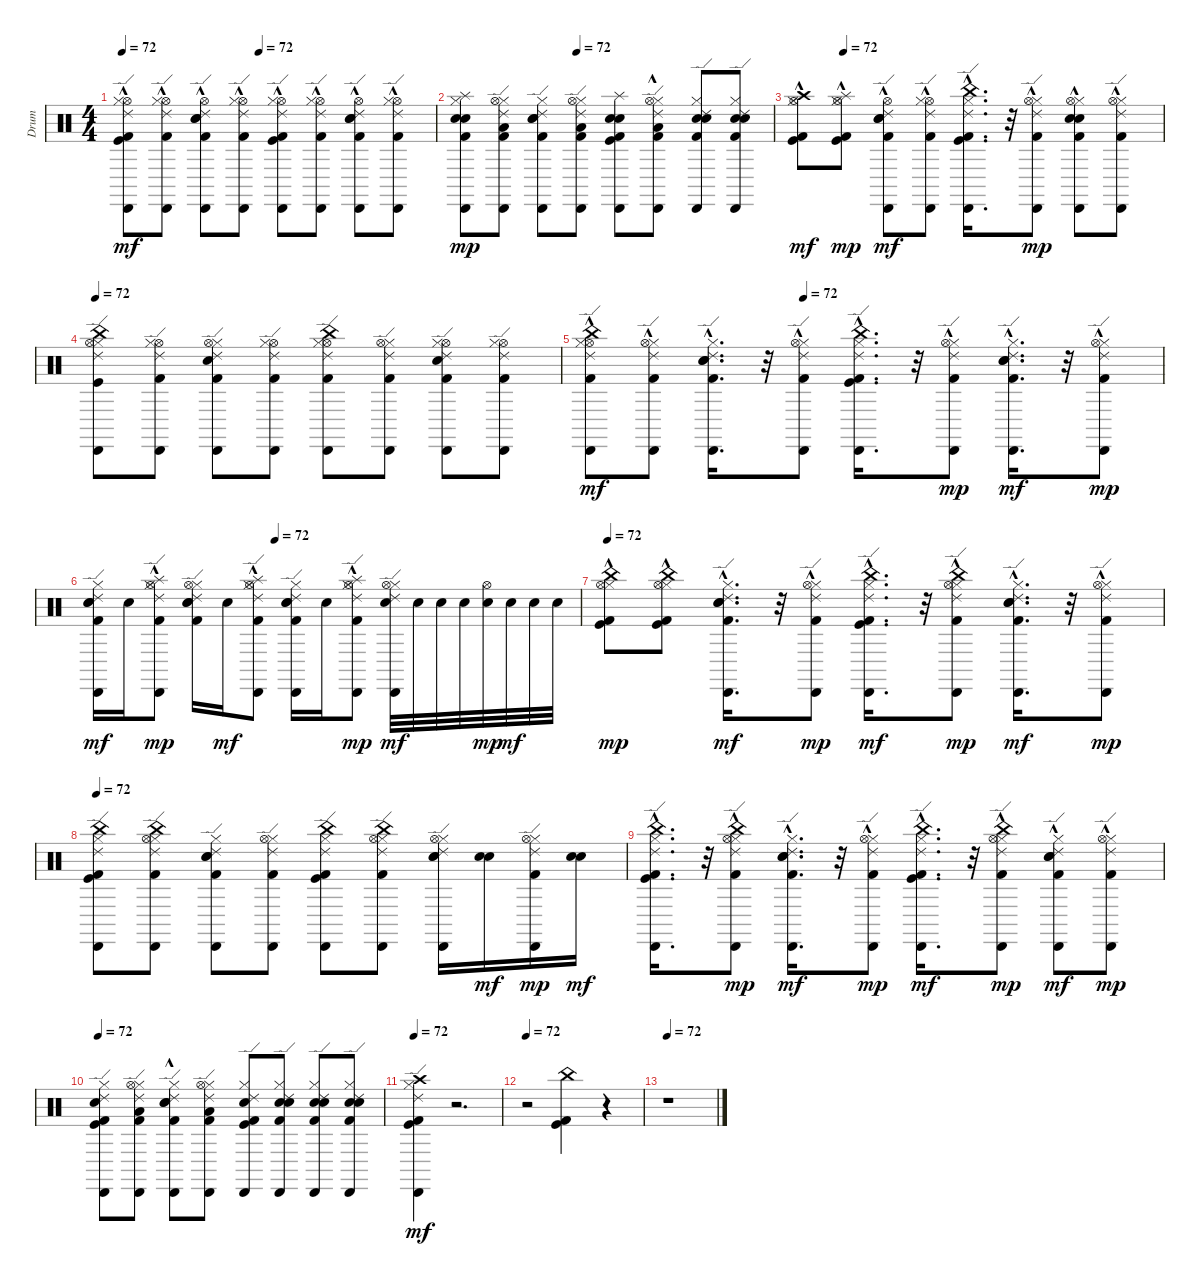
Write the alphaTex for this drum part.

\track ("Drum" "Drum") {instrument percussion}
\staff {score}
\articulation defaults
\ts (4 4)
\tempo 72
\tempo (72 0.4375)
\clef neutral
\ks c
("Hi-Hat (open)" "Kick (hit)"{hac} "Kick (hit) 2"{hac} "Cabasa (hit)"{hac} "Ride (edge) 2"{hac} "Hi-Hat (closed)"{hac}).8{dy mf} ("Hi-Hat (open)" "Kick (hit) 2"{hac} "Cabasa (hit)"{hac} "Ride (edge) 2"{hac} "Hi-Hat (closed)"{hac}).8 ("Hi-Hat (open)" "Electric Snare (hit)"{hac} "Snare (hit) 2"{hac} "Kick (hit) 2"{hac} "Cabasa (hit)"{hac} "Ride (edge) 2"{hac}).8 ("Hi-Hat (open)" "Kick (hit) 2"{hac} "Cabasa (hit)"{hac} "Ride (edge) 2"{hac} "Hi-Hat (closed)"{hac}).8 ("Hi-Hat (open)" "Kick (hit)" "Kick (hit) 2"{hac} "Cabasa (hit)"{hac} "Ride (edge) 2"{hac} "Hi-Hat (closed)"{hac}).8 ("Hi-Hat (open)" "Kick (hit) 2"{hac} "Cabasa (hit)"{hac} "Ride (edge) 2"{hac} "Hi-Hat (closed)"{hac}).8 ("Hi-Hat (open)" "Electric Snare (hit)"{hac} "Snare (hit) 2"{hac} "Kick (hit) 2"{hac} "Cabasa (hit)"{hac} "Ride (edge) 2"{hac}).8 ("Hi-Hat (open)" "Kick (hit) 2"{hac} "Cabasa (hit)"{hac} "Ride (edge) 2" "Hi-Hat (closed)"{hac}).8 |
\tempo (72 0.375)
("Electric Snare (hit)" "Snare (hit) 2" "Splash (hit)" "Cabasa (hit)" "Kick (hit) 2" "Hi-Hat (closed)").8{dy mp} ("Low Tom (hit)" "Cabasa (hit)" "Ride (edge) 2" "Hi-Hat (closed)" "Kick (hit) 2" "Hi-Hat (open)").8 ("Cabasa (hit)" "Hi-Hat (closed)" "Electric Snare (hit)" "Snare (hit) 2" "Kick (hit) 2" "Ride (edge) 2").8 ("Low Tom (hit)" "Cabasa (hit)" "Kick (hit) 2" "Ride (edge) 2" "Hi-Hat (closed)" "Hi-Hat (open)").8 ("Electric Snare (hit)" "Snare (hit) 2" "Splash (hit)" "Cabasa (hit)" "Kick (hit) 2" "Kick (hit)").8 ("Low Tom (hit)" "Cabasa (hit)" "Kick (hit) 2" "Ride (edge) 2" "Hi-Hat (closed)" "Hi-Hat (open)"{hac}).8 ("Cabasa (hit)" "Kick (hit) 2" "Electric Snare (hit)" "Hi-Hat (closed)" "Snare (hit) 2" "Ride (edge) 2").8 ("Snare (hit) 2" "Electric Snare (hit)" "Cabasa (hit)" "Kick (hit) 2" "Ride (edge) 2" "Hi-Hat (closed)").8 |
\tempo (72 0.125)
("Kick (hit)"{hac} "Hi-Hat (closed)"{hac} "Crash high (hit)"{hac} "Hi-Hat (open)" "Kick (hit) 2"{hac}).8{dy mf} ("Splash (hit)"{hac} "Hi-Hat (closed)"{hac} "Kick (hit)"{hac} "Kick (hit) 2"{hac} "Hi-Hat (open)").8{dy mp} ("Electric Snare (hit)"{hac} "Kick (hit) 2"{hac} "Ride (edge) 2"{hac} "Snare (hit) 2"{hac} "Hi-Hat (open)" "Cabasa (hit)"{hac}).8{dy mf} ("Kick (hit) 2"{hac} "Ride (edge) 2"{hac} "Hi-Hat (open)" "Hi-Hat (closed)"{hac} "Cabasa (hit)"{hac}).8 ("China (hit)"{hac} "Hi-Hat (closed)"{hac} "Kick (hit)"{hac} "Kick (hit) 2"{hac} "Cabasa (hit)"{hac} "Ride (edge) 2"{hac}).16{d} r.32 ("Ride (edge) 2"{hac} "Cabasa (hit)"{hac} "Hi-Hat (closed)"{hac} "Kick (hit) 2"{hac} "Hi-Hat (open)").8{dy mp} ("Electric Snare (hit)" "Cabasa (hit)"{hac} "Kick (hit) 2"{hac} "Hi-Hat (closed)"{hac} "Snare (hit) 2"{hac} "Hi-Hat (open)").8 ("Hi-Hat (closed)"{hac} "Cabasa (hit)"{hac} "Ride (edge) 2"{hac} "Kick (hit) 2" "Hi-Hat (open)").8 |
\tempo 72
("China (hit)" "Hi-Hat (closed)" "Cabasa (hit)" "Kick (hit)" "Hi-Hat (open)" "Ride (edge) 2").8 ("Hi-Hat (open)" "Hi-Hat (closed)" "Cabasa (hit)" "Kick (hit) 2" "Ride (edge) 2").8 ("Snare (hit) 2" "Kick (hit) 2" "Ride (edge) 2" "Cabasa (hit)" "Hi-Hat (closed)" "Hi-Hat (open)").8 ("Cabasa (hit)" "Hi-Hat (open)" "Kick (hit) 2" "Ride (edge) 2" "Hi-Hat (closed)").8 ("China (hit)" "Ride (edge) 2" "Hi-Hat (open)" "Kick (hit) 2" "Cabasa (hit)" "Hi-Hat (closed)").8 ("Hi-Hat (closed)" "Ride (edge) 2" "Cabasa (hit)" "Kick (hit) 2" "Hi-Hat (open)").8 ("Hi-Hat (open)" "Kick (hit) 2" "Hi-Hat (closed)" "Electric Snare (hit)" "Ride (edge) 2" "Cabasa (hit)").8 ("Ride (edge) 2" "Kick (hit) 2" "Hi-Hat (open)" "Cabasa (hit)" "Hi-Hat (closed)").8 |
\tempo (72 0.375)
("China (hit)"{hac} "Kick (hit) 2"{hac} "Cabasa (hit)"{hac} "Hi-Hat (open)" "Ride (edge) 2"{hac} "Hi-Hat (closed)"{hac}).8{dy mf} ("Kick (hit) 2"{hac} "Cabasa (hit)"{hac} "Hi-Hat (closed)"{hac} "Hi-Hat (open)" "Ride (edge) 2"{hac}).8 ("Hi-Hat (closed)"{hac} "Snare (hit) 2"{hac} "Kick (hit) 2"{hac} "Cabasa (hit)"{hac} "Ride (edge) 2"{hac} "Electric Snare (hit)"{hac}).16{d} r.32 ("Hi-Hat (closed)"{hac} "Hi-Hat (open)" "Ride (edge) 2"{hac} "Cabasa (hit)"{hac} "Kick (hit) 2"{hac}).8 ("China (hit)"{hac} "Hi-Hat (closed)"{hac} "Cabasa (hit)"{hac} "Ride (edge) 2"{hac} "Kick (hit) 2"{hac} "Kick (hit)"{hac}).16{d} r.32 ("Hi-Hat (closed)"{hac} "Ride (edge) 2"{hac} "Kick (hit) 2"{hac} "Cabasa (hit)"{hac} "Hi-Hat (open)").8{dy mp} ("Ride (edge) 2"{hac} "Cabasa (hit)"{hac} "Hi-Hat (closed)"{hac} "Kick (hit) 2"{hac} "Snare (hit) 2"{hac} "Electric Snare (hit)"{hac}).16{d dy mf} r.32 ("Ride (edge) 2"{hac} "Cabasa (hit)"{hac} "Hi-Hat (closed)"{hac} "Kick (hit) 2"{hac} "Hi-Hat (open)").8{dy mp} |
\tempo (72 0.375)
("Cabasa (hit)" "Kick (hit) 2" "Ride (edge) 2" "Snare (hit) 2" "Electric Snare (hit)" "Hi-Hat (closed)").16{dy mf} "Snare (hit) 2".16 ("Ride (edge) 2"{hac} "Splash (hit)"{hac} "Cabasa (hit)"{hac} "Kick (hit) 2"{hac} "Hi-Hat (closed)"{hac} "Hi-Hat (open)").8{dy mp} ("Hi-Hat (closed)" "Electric Snare (hit)" "Snare (hit) 2" "Ride (edge) 2" "Kick (hit) 2" "Hi-Hat (open)").16 "Snare (hit) 2".16{dy mf} ("Hi-Hat (closed)"{hac} "Kick (hit) 2"{hac} "Hi-Hat (open)" "Cabasa (hit)"{hac} "Splash (hit)"{hac} "Ride (edge) 2"{hac}).8 ("Electric Snare (hit)" "Kick (hit) 2" "Hi-Hat (closed)" "Cabasa (hit)" "Ride (edge) 2" "Snare (hit) 2").16 "Snare (hit) 2".16 ("Kick (hit) 2"{hac} "Hi-Hat (closed)"{hac} "Cabasa (hit)"{hac} "Splash (hit)"{hac} "Ride (edge) 2"{hac} "Hi-Hat (open)").8{dy mp} ("Hi-Hat (closed)" "Cabasa (hit)" "Hi-Hat (open)" "Snare (hit) 2" "Ride (edge) 2").32{dy mf} "Snare (hit) 2".32 "Snare (hit) 2".32 "Snare (hit) 2".32 ("Snare (hit) 2" "Hi-Hat (open)").32{dy mp} "Snare (hit) 2".32{dy mf} "Snare (hit) 2".32 "Snare (hit) 2".32 |
\tempo 72
("China (hit)"{hac} "Hi-Hat (closed)"{hac} "Kick (hit)"{hac} "Kick (hit) 2"{hac} "Hi-Hat (open)").8{dy mp} ("China (hit)"{hac} "Hi-Hat (closed)"{hac} "Kick (hit)"{hac} "Kick (hit) 2"{hac} "Hi-Hat (open)").8 ("Electric Snare (hit)"{hac} "Snare (hit) 2"{hac} "Kick (hit) 2"{hac} "Cabasa (hit)"{hac} "Hi-Hat (closed)"{hac} "Ride (edge) 2"{hac}).16{d dy mf} r.32 ("Kick (hit) 2"{hac} "Ride (edge) 2"{hac} "Cabasa (hit)"{hac} "Hi-Hat (closed)"{hac} "Hi-Hat (open)").8{dy mp} ("China (hit)"{hac} "Ride (edge) 2"{hac} "Cabasa (hit)"{hac} "Kick (hit) 2"{hac} "Kick (hit)"{hac} "Hi-Hat (closed)"{hac}).16{d dy mf} r.32 ("China (hit)"{hac} "Ride (edge) 2"{hac} "Cabasa (hit)"{hac} "Kick (hit) 2"{hac} "Hi-Hat (closed)"{hac} "Hi-Hat (open)").8{dy mp} ("Kick (hit) 2"{hac} "Electric Snare (hit)"{hac} "Cabasa (hit)"{hac} "Hi-Hat (closed)"{hac} "Snare (hit) 2"{hac} "Ride (edge) 2"{hac}).16{d dy mf} r.32 ("Ride (edge) 2"{hac} "Cabasa (hit)"{hac} "Kick (hit) 2"{hac} "Hi-Hat (closed)"{hac} "Hi-Hat (open)").8{dy mp} |
\tempo 72
("China (hit)" "Hi-Hat (closed)" "Cabasa (hit)" "Kick (hit)" "Kick (hit) 2" "Ride (edge) 2").8 ("China (hit)" "Cabasa (hit)" "Kick (hit) 2" "Ride (edge) 2" "Hi-Hat (closed)" "Hi-Hat (open)").8 ("Kick (hit) 2" "Ride (edge) 2" "Snare (hit) 2" "Electric Snare (hit)" "Hi-Hat (closed)" "Cabasa (hit)").8 ("Ride (edge) 2" "Cabasa (hit)" "Kick (hit) 2" "Hi-Hat (closed)" "Hi-Hat (open)").8 ("China (hit)" "Ride (edge) 2" "Kick (hit)" "Cabasa (hit)" "Kick (hit) 2" "Hi-Hat (closed)").8 ("China (hit)" "Ride (edge) 2" "Cabasa (hit)" "Kick (hit) 2" "Hi-Hat (closed)" "Hi-Hat (open)").8 ("Electric Snare (hit)" "Cabasa (hit)" "Ride (edge) 2" "Hi-Hat (closed)" "Snare (hit) 2" "Hi-Hat (open)").16 ("Electric Snare (hit)" "Snare (hit) 2").16{dy mf} ("Cabasa (hit)" "Ride (edge) 2" "Hi-Hat (closed)" "Kick (hit) 2" "Hi-Hat (open)").16{dy mp} ("Electric Snare (hit)" "Snare (hit) 2").16{dy mf} |
("China (hit)"{hac} "Hi-Hat (closed)"{hac} "Ride (edge) 2"{hac} "Cabasa (hit)"{hac} "Kick (hit) 2"{hac} "Kick (hit)"{hac}).16{d} r.32 ("China (hit)"{hac} "Hi-Hat (closed)"{hac} "Ride (edge) 2"{hac} "Cabasa (hit)"{hac} "Kick (hit) 2"{hac} "Hi-Hat (open)").8{dy mp} ("Hi-Hat (closed)"{hac} "Ride (edge) 2"{hac} "Cabasa (hit)"{hac} "Kick (hit) 2"{hac} "Snare (hit) 2"{hac} "Electric Snare (hit)"{hac}).16{d dy mf} r.32 ("Hi-Hat (closed)"{hac} "Ride (edge) 2"{hac} "Cabasa (hit)"{hac} "Kick (hit) 2"{hac} "Hi-Hat (open)").8{dy mp} ("China (hit)"{hac} "Hi-Hat (closed)"{hac} "Ride (edge) 2"{hac} "Cabasa (hit)"{hac} "Kick (hit) 2"{hac} "Kick (hit)"{hac}).16{d dy mf} r.32 ("China (hit)"{hac} "Hi-Hat (closed)"{hac} "Ride (edge) 2"{hac} "Cabasa (hit)"{hac} "Kick (hit) 2"{hac} "Hi-Hat (open)").8{dy mp} ("Hi-Hat (closed)"{hac} "Ride (edge) 2"{hac} "Cabasa (hit)"{hac} "Kick (hit) 2"{hac} "Snare (hit) 2"{hac} "Electric Snare (hit)"{hac}).8{dy mf} ("Hi-Hat (closed)"{hac} "Ride (edge) 2"{hac} "Cabasa (hit)"{hac} "Kick (hit) 2"{hac} "Hi-Hat (open)").8{dy mp} |
\tempo 72
("Ride (edge) 2" "Kick (hit)" "Hi-Hat (closed)" "Kick (hit) 2" "Cabasa (hit)" "Snare (hit) 2").8 ("Kick (hit) 2" "Hi-Hat (closed)" "Ride (edge) 2" "Cabasa (hit)" "Low Tom (hit)" "Hi-Hat (open)").8 ("Ride (edge) 2" "Kick (hit) 2" "Snare (hit) 2" "Electric Snare (hit)"{hac} "Hi-Hat (closed)" "Cabasa (hit)").8 ("Hi-Hat (closed)" "Ride (edge) 2" "Kick (hit) 2" "Cabasa (hit)" "Low Tom (hit)" "Hi-Hat (open)").8 ("Hi-Hat (closed)" "Ride (edge) 2" "Kick (hit)" "Kick (hit) 2" "Cabasa (hit)" "Snare (hit) 2").8 ("Electric Snare (hit)" "Snare (hit) 2" "Hi-Hat (closed)" "Ride (edge) 2" "Kick (hit) 2" "Cabasa (hit)").8 ("Ride (edge) 2" "Snare (hit) 2" "Hi-Hat (closed)" "Electric Snare (hit)" "Kick (hit) 2" "Cabasa (hit)").8 ("Hi-Hat (closed)" "Ride (edge) 2" "Kick (hit) 2" "Cabasa (hit)" "Electric Snare (hit)" "Snare (hit) 2").8 |
\tempo 72
("Crash high (hit)" "Hi-Hat (closed)" "Kick (hit) 2" "Kick (hit)" "Ride (edge) 2" "Cabasa (hit)").4{dy mf} r.2{d} |
\tempo 72
r.2 ("China (hit)" "Kick (hit) 2" "Kick (hit)").4 r.4 |
\tempo 72
r.1
